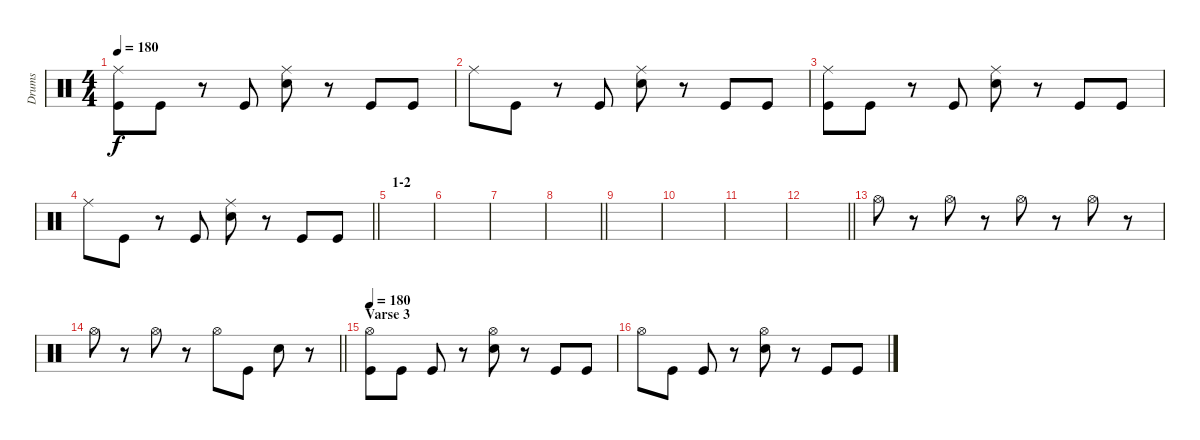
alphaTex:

\track ("Drums" "Drums") {instrument percussion}
\staff {score}
\articulation defaults
\ts (4 4)
\tempo 180
\clef neutral
\ks c
("Ride (middle)" "Kick (hit)").8{dy f} "Kick (hit)".8 r.8 "Kick (hit)".8 ("Ride (middle)" "Electric Snare (hit)").8 r.8 "Kick (hit)".8 "Kick (hit)".8 |
"Ride (middle)".8 "Kick (hit)".8 r.8 "Kick (hit)".8 ("Ride (middle)" "Electric Snare (hit)").8 r.8 "Kick (hit)".8 "Kick (hit)".8 |
("Ride (middle)" "Kick (hit)").8 "Kick (hit)".8 r.8 "Kick (hit)".8 ("Ride (middle)" "Electric Snare (hit)").8 r.8 "Kick (hit)".8 "Kick (hit)".8 |
\barLineRight lightlight "Ride (middle)".8 "Kick (hit)".8
r.8 "Kick (hit)".8 ("Ride (middle)" "Electric Snare (hit)").8 r.8 "Kick (hit)".8 "Kick (hit)".8 |
\section ("" "1-2")
|
|
|
\barLineRight lightlight
|
|
|
|
\barLineRight lightlight
|
"Hi-Hat (open)".8 r.8 "Hi-Hat (open)".8 r.8 "Hi-Hat (open)".8 r.8 "Hi-Hat (open)".8 r.8 |
\barLineRight lightlight "Hi-Hat (open)".8
r.8 "Hi-Hat (open)".8 r.8 "Hi-Hat (open)".8 "Kick (hit)".8 "Electric Snare (hit)".8 r.8 |
\section ("" "Varse 3")
\tempo 180
("Hi-Hat (open)" "Kick (hit)").8 "Kick (hit)".8 "Kick (hit)".8 r.8 ("Hi-Hat (open)" "Electric Snare (hit)").8 r.8 "Kick (hit)".8 "Kick (hit)".8 |
"Hi-Hat (open)".8 "Kick (hit)".8 "Kick (hit)".8 r.8 ("Hi-Hat (open)" "Electric Snare (hit)").8 r.8 "Kick (hit)".8 "Kick (hit)".8
